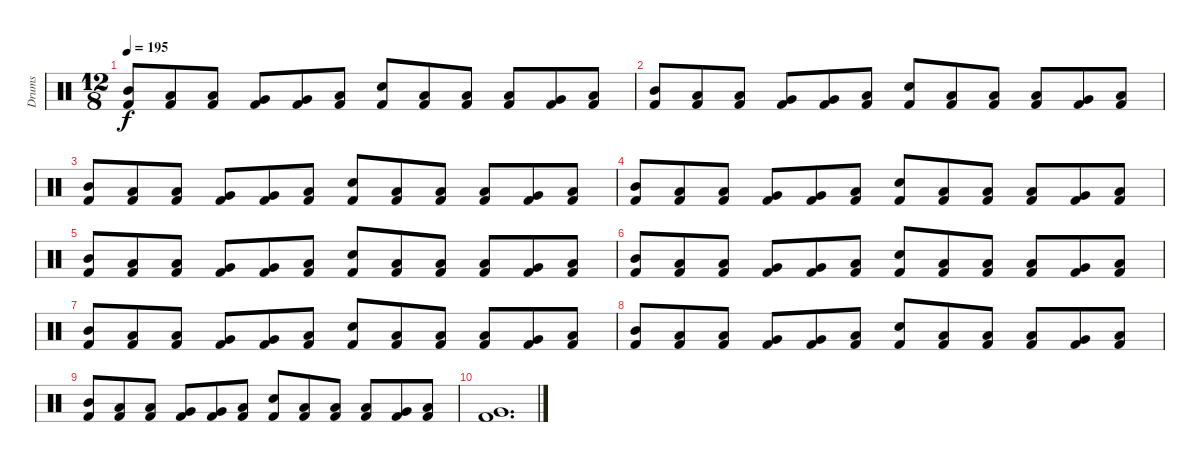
\track ("Drums" "Drums") {instrument percussion}
\staff {score}
\articulation defaults
\ts (12 8)
\tempo 195
\clef neutral
\ks c
("Mid Tom (hit)" "Kick (hit) 2").8{dy f} ("Low Tom (hit)" "Kick (hit) 2").8 ("Low Tom (hit)" "Kick (hit) 2").8 ("Very Low Tom (hit)" "Kick (hit) 2").8 ("Very Low Tom (hit)" "Kick (hit) 2").8 ("Low Floor Tom (hit)" "Kick (hit) 2").8 ("Snare (hit) 2" "Kick (hit) 2").8 ("Low Floor Tom (hit)" "Kick (hit) 2").8 ("Low Floor Tom (hit)" "Kick (hit) 2").8 ("Low Tom (hit)" "Kick (hit) 2").8 ("Very Low Tom (hit)" "Kick (hit) 2").8 ("Low Floor Tom (hit)" "Kick (hit) 2").8 |
("Mid Tom (hit)" "Kick (hit) 2").8 ("Low Tom (hit)" "Kick (hit) 2").8 ("Low Tom (hit)" "Kick (hit) 2").8 ("Very Low Tom (hit)" "Kick (hit) 2").8 ("Very Low Tom (hit)" "Kick (hit) 2").8 ("Low Floor Tom (hit)" "Kick (hit) 2").8 ("Snare (hit) 2" "Kick (hit) 2").8 ("Low Floor Tom (hit)" "Kick (hit) 2").8 ("Low Floor Tom (hit)" "Kick (hit) 2").8 ("Low Tom (hit)" "Kick (hit) 2").8 ("Very Low Tom (hit)" "Kick (hit) 2").8 ("Low Floor Tom (hit)" "Kick (hit) 2").8 |
("Mid Tom (hit)" "Kick (hit) 2").8 ("Low Tom (hit)" "Kick (hit) 2").8 ("Low Tom (hit)" "Kick (hit) 2").8 ("Very Low Tom (hit)" "Kick (hit) 2").8 ("Very Low Tom (hit)" "Kick (hit) 2").8 ("Low Floor Tom (hit)" "Kick (hit) 2").8 ("Snare (hit) 2" "Kick (hit) 2").8 ("Low Floor Tom (hit)" "Kick (hit) 2").8 ("Low Floor Tom (hit)" "Kick (hit) 2").8 ("Low Tom (hit)" "Kick (hit) 2").8 ("Very Low Tom (hit)" "Kick (hit) 2").8 ("Low Floor Tom (hit)" "Kick (hit) 2").8 |
("Mid Tom (hit)" "Kick (hit) 2").8 ("Low Tom (hit)" "Kick (hit) 2").8 ("Low Tom (hit)" "Kick (hit) 2").8 ("Very Low Tom (hit)" "Kick (hit) 2").8 ("Very Low Tom (hit)" "Kick (hit) 2").8 ("Low Floor Tom (hit)" "Kick (hit) 2").8 ("Snare (hit) 2" "Kick (hit) 2").8 ("Low Floor Tom (hit)" "Kick (hit) 2").8 ("Low Floor Tom (hit)" "Kick (hit) 2").8 ("Low Tom (hit)" "Kick (hit) 2").8 ("Very Low Tom (hit)" "Kick (hit) 2").8 ("Low Floor Tom (hit)" "Kick (hit) 2").8 |
("Mid Tom (hit)" "Kick (hit) 2").8 ("Low Tom (hit)" "Kick (hit) 2").8 ("Low Tom (hit)" "Kick (hit) 2").8 ("Very Low Tom (hit)" "Kick (hit) 2").8 ("Very Low Tom (hit)" "Kick (hit) 2").8 ("Low Floor Tom (hit)" "Kick (hit) 2").8 ("Snare (hit) 2" "Kick (hit) 2").8 ("Low Floor Tom (hit)" "Kick (hit) 2").8 ("Low Floor Tom (hit)" "Kick (hit) 2").8 ("Low Tom (hit)" "Kick (hit) 2").8 ("Very Low Tom (hit)" "Kick (hit) 2").8 ("Low Floor Tom (hit)" "Kick (hit) 2").8 |
("Mid Tom (hit)" "Kick (hit) 2").8 ("Low Tom (hit)" "Kick (hit) 2").8 ("Low Tom (hit)" "Kick (hit) 2").8 ("Very Low Tom (hit)" "Kick (hit) 2").8 ("Very Low Tom (hit)" "Kick (hit) 2").8 ("Low Floor Tom (hit)" "Kick (hit) 2").8 ("Snare (hit) 2" "Kick (hit) 2").8 ("Low Floor Tom (hit)" "Kick (hit) 2").8 ("Low Floor Tom (hit)" "Kick (hit) 2").8 ("Low Tom (hit)" "Kick (hit) 2").8 ("Very Low Tom (hit)" "Kick (hit) 2").8 ("Low Floor Tom (hit)" "Kick (hit) 2").8 |
("Mid Tom (hit)" "Kick (hit) 2").8 ("Low Tom (hit)" "Kick (hit) 2").8 ("Low Tom (hit)" "Kick (hit) 2").8 ("Very Low Tom (hit)" "Kick (hit) 2").8 ("Very Low Tom (hit)" "Kick (hit) 2").8 ("Low Floor Tom (hit)" "Kick (hit) 2").8 ("Snare (hit) 2" "Kick (hit) 2").8 ("Low Floor Tom (hit)" "Kick (hit) 2").8 ("Low Floor Tom (hit)" "Kick (hit) 2").8 ("Low Tom (hit)" "Kick (hit) 2").8 ("Very Low Tom (hit)" "Kick (hit) 2").8 ("Low Floor Tom (hit)" "Kick (hit) 2").8 |
("Mid Tom (hit)" "Kick (hit) 2").8 ("Low Tom (hit)" "Kick (hit) 2").8 ("Low Tom (hit)" "Kick (hit) 2").8 ("Very Low Tom (hit)" "Kick (hit) 2").8 ("Very Low Tom (hit)" "Kick (hit) 2").8 ("Low Floor Tom (hit)" "Kick (hit) 2").8 ("Snare (hit) 2" "Kick (hit) 2").8 ("Low Floor Tom (hit)" "Kick (hit) 2").8 ("Low Floor Tom (hit)" "Kick (hit) 2").8 ("Low Tom (hit)" "Kick (hit) 2").8 ("Very Low Tom (hit)" "Kick (hit) 2").8 ("Low Floor Tom (hit)" "Kick (hit) 2").8 |
("Mid Tom (hit)" "Kick (hit) 2").8 ("Low Tom (hit)" "Kick (hit) 2").8 ("Low Tom (hit)" "Kick (hit) 2").8 ("Very Low Tom (hit)" "Kick (hit) 2").8 ("Very Low Tom (hit)" "Kick (hit) 2").8 ("Low Floor Tom (hit)" "Kick (hit) 2").8 ("Snare (hit) 2" "Kick (hit) 2").8 ("Low Floor Tom (hit)" "Kick (hit) 2").8 ("Low Floor Tom (hit)" "Kick (hit) 2").8 ("Low Tom (hit)" "Kick (hit) 2").8 ("Very Low Tom (hit)" "Kick (hit) 2").8 ("Low Floor Tom (hit)" "Kick (hit) 2").8 |
("Very Low Tom (hit)" "Kick (hit) 2").1{d}
